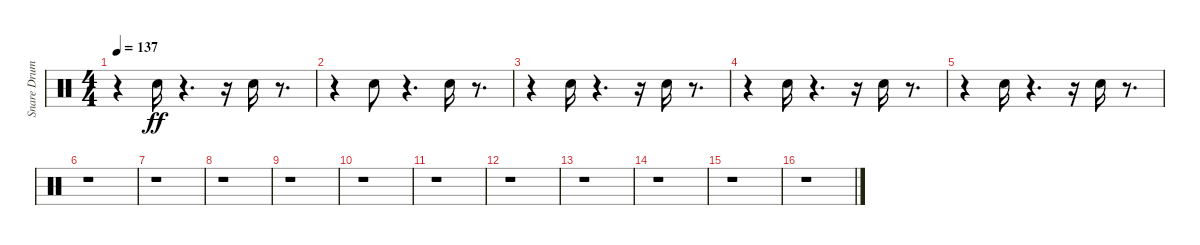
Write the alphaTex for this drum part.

\track ("Snare Drum" "Snare Drum") {instrument percussion}
\staff {score}
\articulation defaults
\ts (4 4)
\tempo 137
\clef neutral
\ks c
r.4{dy ff} "Electric Snare (hit)".16 r.4{d} r.16 "Electric Snare (hit)".16 r.8{d} |
r.4 "Electric Snare (hit)".8 r.4{d} "Electric Snare (hit)".16 r.8{d} |
r.4 "Electric Snare (hit)".16 r.4{d} r.16 "Electric Snare (hit)".16 r.8{d} |
r.4 "Electric Snare (hit)".16 r.4{d} r.16 "Electric Snare (hit)".16 r.8{d} |
r.4 "Electric Snare (hit)".16 r.4{d} r.16 "Electric Snare (hit)".16 r.8{d} |
r.1 |
r.1 |
r.1 |
r.1 |
r.1 |
r.1 |
r.1 |
r.1 |
r.1 |
r.1 |
r.1
